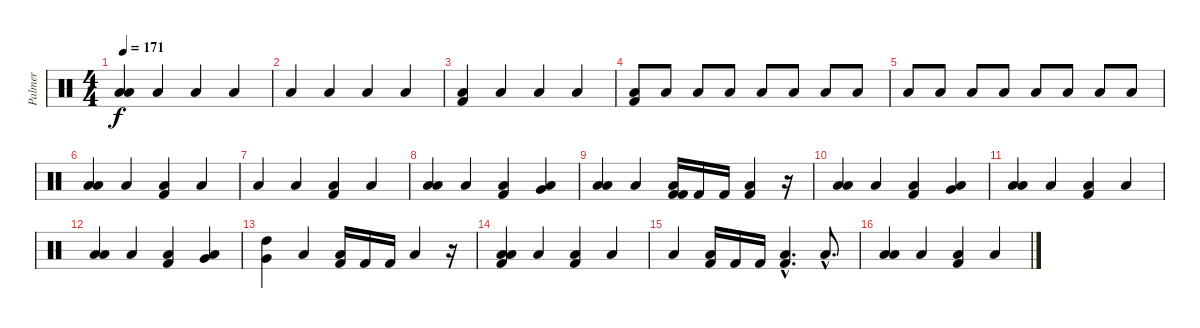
\track ("Palmer" "Palmer") {instrument percussion}
\staff {score}
\articulation defaults
\ts (4 4)
\tempo 171
\clef neutral
\ks c
("Low Tom (hit)" "Low Floor Tom (hit)").4{dy f} "Low Floor Tom (hit)".4 "Low Tom (hit)".4 "Low Floor Tom (hit)".4 |
"Low Tom (hit)".4 "Low Floor Tom (hit)".4 "Low Floor Tom (hit)".4 "Low Floor Tom (hit)".4 |
("Low Tom (hit)" "Kick (hit) 2").4 "Low Floor Tom (hit)".4 "Low Tom (hit)".4 "Low Floor Tom (hit)".4 |
("Low Tom (hit)" "Kick (hit) 2").8 "Low Tom (hit)".8 "Low Tom (hit)".8 "Low Tom (hit)".8 "Low Tom (hit)".8 "Low Tom (hit)".8 "Low Tom (hit)".8 "Low Tom (hit)".8 |
"Low Tom (hit)".8 "Low Tom (hit)".8 "Low Tom (hit)".8 "Low Tom (hit)".8 "Low Tom (hit)".8 "Low Tom (hit)".8 "Low Tom (hit)".8 "Low Tom (hit)".8 |
("Low Floor Tom (hit)" "Low Tom (hit)").4 "Low Floor Tom (hit)".4 ("Low Floor Tom (hit)" "Kick (hit) 2").4 "Low Floor Tom (hit)".4 |
"Low Floor Tom (hit)".4 "Low Floor Tom (hit)".4 ("Low Floor Tom (hit)" "Kick (hit) 2").4 "Low Floor Tom (hit)".4 |
("Low Floor Tom (hit)" "Low Tom (hit)").4 "Low Floor Tom (hit)".4 ("Low Floor Tom (hit)" "Kick (hit) 2").4 ("Very Low Tom (hit)" "Low Floor Tom (hit)").4 |
("Low Floor Tom (hit)" "Low Tom (hit)").4 "Low Floor Tom (hit)".4 ("Low Floor Tom (hit)" "Kick (hit) 2" "Kick (hit) 2").16 "Kick (hit) 2".16 "Kick (hit) 2".16 ("Low Floor Tom (hit)" "Kick (hit) 2").4 r.16 |
("Low Floor Tom (hit)" "Low Tom (hit)").4 "Low Floor Tom (hit)".4 ("Low Floor Tom (hit)" "Kick (hit) 2").4 ("Very Low Tom (hit)" "Low Floor Tom (hit)").4 |
("Low Floor Tom (hit)" "Low Tom (hit)").4 "Low Floor Tom (hit)".4 ("Low Floor Tom (hit)" "Kick (hit) 2").4 "Low Floor Tom (hit)".4 |
("Low Floor Tom (hit)" "Low Tom (hit)").4 "Low Floor Tom (hit)".4 ("Low Floor Tom (hit)" "Kick (hit) 2").4 ("Very Low Tom (hit)" "Low Floor Tom (hit)").4 |
("Very Low Tom (hit)" "High Tom (hit)").4 "Low Floor Tom (hit)".4 ("Low Floor Tom (hit)" "Kick (hit) 2").16 "Kick (hit) 2".16 "Kick (hit) 2".16 "Low Floor Tom (hit)".4 r.16 |
("Low Floor Tom (hit)" "Low Tom (hit)" "Kick (hit) 2").4 "Low Floor Tom (hit)".4 ("Low Floor Tom (hit)" "Kick (hit) 2").4 "Low Floor Tom (hit)".4 |
"Low Floor Tom (hit)".4 ("Low Floor Tom (hit)" "Kick (hit) 2").16 "Kick (hit) 2".16 "Kick (hit) 2".16 ("Low Floor Tom (hit)"{hac} "Kick (hit) 2"{hac}).4{d} "Low Floor Tom (hit)"{hac}.8{d} |
("Low Floor Tom (hit)" "Low Tom (hit)").4 "Low Floor Tom (hit)".4 ("Low Floor Tom (hit)" "Kick (hit) 2").4 "Low Floor Tom (hit)".4
